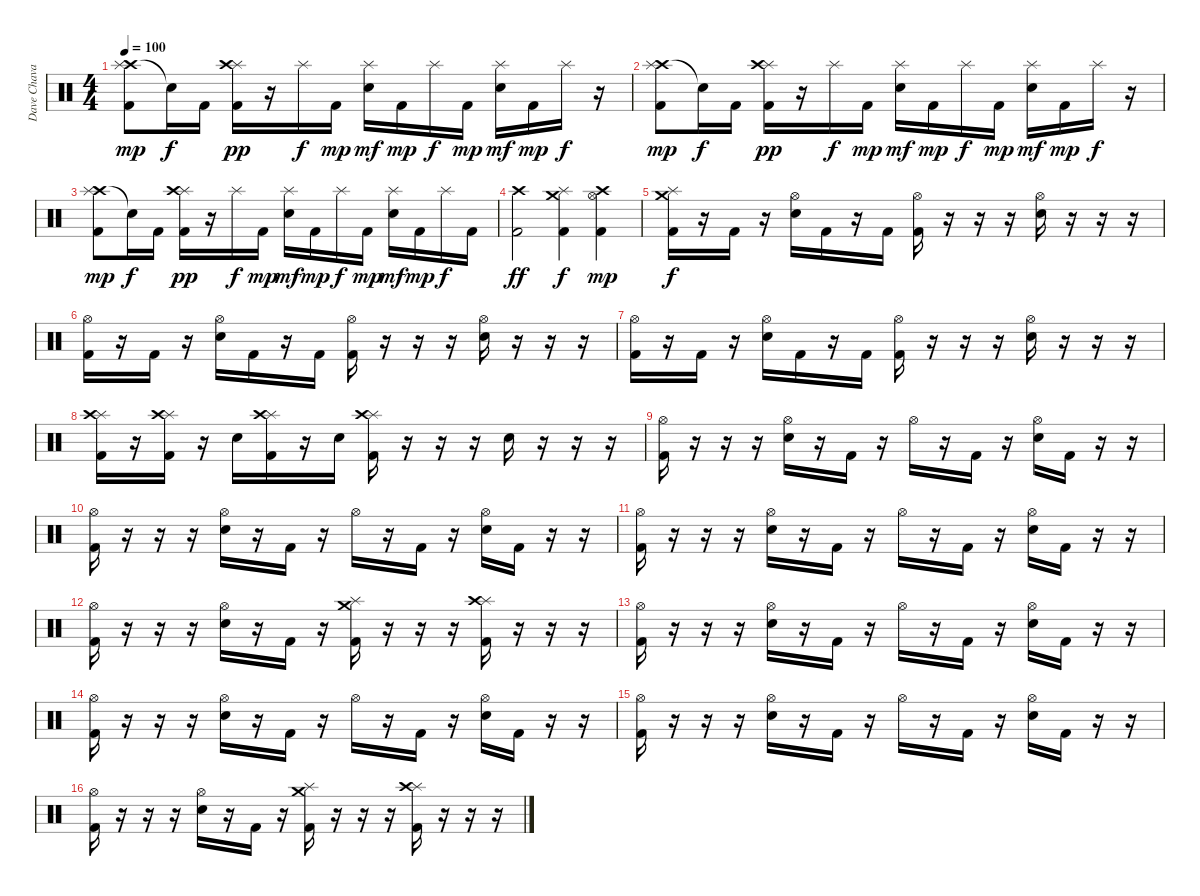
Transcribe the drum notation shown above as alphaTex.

\track ("Dave Chavarri" "Dave Chava") {instrument percussion}
\staff {score}
\articulation defaults
\ts (4 4)
\tempo 100
\clef neutral
\ks c
("Crash high (hit)" "Splash (hit)" "Kick (hit) 2").8{dy mp} "Snare (hit)"{t}.16{dy f} "Kick (hit) 2".16 ("Splash (hit)" "Crash high (hit)" "Kick (hit) 2").16{dy pp} r.16 "Splash (hit)".16{dy f} "Kick (hit) 2".16{dy mp} ("Splash (hit)" "Snare (hit) 2").16{dy mf} "Kick (hit) 2".16{dy mp} "Splash (hit)".16{dy f} "Kick (hit) 2".16{dy mp} ("Splash (hit)" "Snare (hit) 2").16{dy mf} "Kick (hit) 2".16{dy mp} "Splash (hit)".16{dy f} r.16 |
("Crash high (hit)" "Splash (hit)" "Kick (hit) 2").8{dy mp} "Snare (hit)"{t}.16{dy f} "Kick (hit) 2".16 ("Splash (hit)" "Crash high (hit)" "Kick (hit) 2").16{dy pp} r.16 "Splash (hit)".16{dy f} "Kick (hit) 2".16{dy mp} ("Splash (hit)" "Snare (hit) 2").16{dy mf} "Kick (hit) 2".16{dy mp} "Splash (hit)".16{dy f} "Kick (hit) 2".16{dy mp} ("Splash (hit)" "Snare (hit) 2").16{dy mf} "Kick (hit) 2".16{dy mp} "Splash (hit)".16{dy f} r.16 |
("Crash high (hit)" "Splash (hit)" "Kick (hit) 2").8{dy mp} "Snare (hit)"{t}.16{dy f} "Kick (hit) 2".16 ("Splash (hit)" "Crash high (hit)" "Kick (hit) 2").16{dy pp} r.16 "Splash (hit)".16{dy f} "Kick (hit) 2".16{dy mp} ("Splash (hit)" "Snare (hit) 2").16{dy mf} "Kick (hit) 2".16{dy mp} "Splash (hit)".16{dy f} "Kick (hit) 2".16{dy mp} ("Splash (hit)" "Snare (hit) 2").16{dy mf} "Kick (hit) 2".16{dy mp} "Splash (hit)".16{dy f} "Kick (hit) 2".16 |
("Crash high (hit)" "Kick (hit) 2").2{dy ff} ("Crash medium (hit)" "Splash (hit)" "Kick (hit) 2").4{dy f} ("Crash high (hit)" "Hi-Hat (open)" "Kick (hit) 2").4{dy mp} |
("Splash (hit)" "Crash medium (hit)" "Kick (hit) 2").16{dy f} r.16 "Kick (hit) 2".16 r.16 ("Hi-Hat (open)" "Snare (hit) 2").16 "Kick (hit) 2".16 r.16 "Kick (hit) 2".16 ("Hi-Hat (open)" "Kick (hit) 2").16 r.16 r.16 r.16 ("Hi-Hat (open)" "Snare (hit) 2").16 r.16 r.16 r.16 |
("Hi-Hat (open)" "Kick (hit) 2").16 r.16 "Kick (hit) 2".16 r.16 ("Hi-Hat (open)" "Snare (hit) 2").16 "Kick (hit) 2".16 r.16 "Kick (hit) 2".16 ("Hi-Hat (open)" "Kick (hit) 2").16 r.16 r.16 r.16 ("Hi-Hat (open)" "Snare (hit) 2").16 r.16 r.16 r.16 |
("Hi-Hat (open)" "Kick (hit) 2").16 r.16 "Kick (hit) 2".16 r.16 ("Hi-Hat (open)" "Snare (hit) 2").16 "Kick (hit) 2".16 r.16 "Kick (hit) 2".16 ("Hi-Hat (open)" "Kick (hit) 2").16 r.16 r.16 r.16 ("Hi-Hat (open)" "Snare (hit) 2").16 r.16 r.16 r.16 |
("Splash (hit)" "Crash high (hit)" "Kick (hit) 2").16 r.16 ("Splash (hit)" "Crash high (hit)" "Kick (hit) 2").16 r.16 "Snare (hit) 2".16 ("Splash (hit)" "Crash high (hit)" "Kick (hit) 2").16 r.16 "Snare (hit) 2".16 ("Splash (hit)" "Crash high (hit)" "Kick (hit) 2").16 r.16 r.16 r.16 "Snare (hit) 2".16 r.16 r.16 r.16 |
("Hi-Hat (open)" "Kick (hit) 2").16 r.16 r.16 r.16 ("Hi-Hat (open)" "Snare (hit) 2").16 r.16 "Kick (hit) 2".16 r.16 "Hi-Hat (open)".16 r.16 "Kick (hit) 2".16 r.16 ("Hi-Hat (open)" "Snare (hit) 2").16 "Kick (hit) 2".16 r.16 r.16 |
("Hi-Hat (open)" "Kick (hit) 2").16 r.16 r.16 r.16 ("Hi-Hat (open)" "Snare (hit) 2").16 r.16 "Kick (hit) 2".16 r.16 "Hi-Hat (open)".16 r.16 "Kick (hit) 2".16 r.16 ("Hi-Hat (open)" "Snare (hit) 2").16 "Kick (hit) 2".16 r.16 r.16 |
("Hi-Hat (open)" "Kick (hit) 2").16 r.16 r.16 r.16 ("Hi-Hat (open)" "Snare (hit) 2").16 r.16 "Kick (hit) 2".16 r.16 "Hi-Hat (open)".16 r.16 "Kick (hit) 2".16 r.16 ("Hi-Hat (open)" "Snare (hit) 2").16 "Kick (hit) 2".16 r.16 r.16 |
("Hi-Hat (open)" "Kick (hit) 2").16 r.16 r.16 r.16 ("Hi-Hat (open)" "Snare (hit) 2").16 r.16 "Kick (hit) 2".16 r.16 ("Splash (hit)" "Crash medium (hit)" "Kick (hit) 2").16 r.16 r.16 r.16 ("Splash (hit)" "Crash high (hit)" "Kick (hit) 2").16 r.16 r.16 r.16 |
("Hi-Hat (open)" "Kick (hit) 2").16 r.16 r.16 r.16 ("Hi-Hat (open)" "Snare (hit) 2").16 r.16 "Kick (hit) 2".16 r.16 "Hi-Hat (open)".16 r.16 "Kick (hit) 2".16 r.16 ("Hi-Hat (open)" "Snare (hit) 2").16 "Kick (hit) 2".16 r.16 r.16 |
("Hi-Hat (open)" "Kick (hit) 2").16 r.16 r.16 r.16 ("Hi-Hat (open)" "Snare (hit) 2").16 r.16 "Kick (hit) 2".16 r.16 "Hi-Hat (open)".16 r.16 "Kick (hit) 2".16 r.16 ("Hi-Hat (open)" "Snare (hit) 2").16 "Kick (hit) 2".16 r.16 r.16 |
("Hi-Hat (open)" "Kick (hit) 2").16 r.16 r.16 r.16 ("Hi-Hat (open)" "Snare (hit) 2").16 r.16 "Kick (hit) 2".16 r.16 "Hi-Hat (open)".16 r.16 "Kick (hit) 2".16 r.16 ("Hi-Hat (open)" "Snare (hit) 2").16 "Kick (hit) 2".16 r.16 r.16 |
("Hi-Hat (open)" "Kick (hit) 2").16 r.16 r.16 r.16 ("Hi-Hat (open)" "Snare (hit) 2").16 r.16 "Kick (hit) 2".16 r.16 ("Splash (hit)" "Crash medium (hit)" "Kick (hit) 2").16 r.16 r.16 r.16 ("Splash (hit)" "Crash high (hit)" "Kick (hit) 2").16 r.16 r.16 r.16
